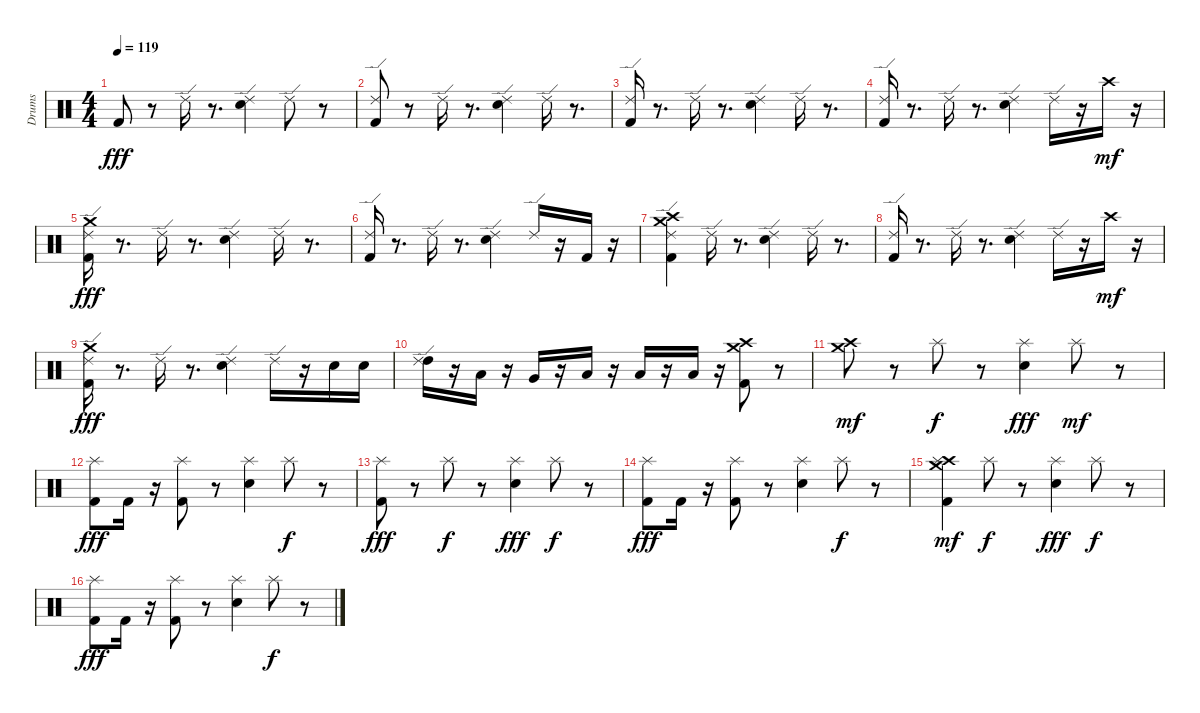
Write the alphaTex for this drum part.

\track ("Drums" "Drums") {instrument percussion}
\staff {score}
\articulation defaults
\ts (4 4)
\tempo 119
\clef neutral
\ks c "Kick (hit) 2".8{dy fff}
r.8 "Ride (edge) 2".16 r.8{d} ("Snare (hit) 2" "Ride (edge) 2").4 "Ride (edge) 2".8 r.8 |
("Kick (hit) 2" "Ride (edge) 2").8 r.8 "Ride (edge) 2".16 r.8{d} ("Snare (hit) 2" "Ride (edge) 2").4 "Ride (edge) 2".16 r.8{d} |
("Ride (edge) 2" "Kick (hit) 2").16 r.8{d} "Ride (edge) 2".16 r.8{d} ("Snare (hit) 2" "Ride (edge) 2").4 "Ride (edge) 2".16 r.8{d} |
("Ride (edge) 2" "Kick (hit) 2").16 r.8{d} "Ride (edge) 2".16 r.8{d} ("Ride (edge) 2" "Snare (hit) 2").4 "Ride (edge) 2".16 r.16 "Crash high (hit)".16{dy mf} r.16 |
("Ride (edge) 2" "Crash medium (hit)" "Kick (hit) 2").16{dy fff} r.8{d} "Ride (edge) 2".16 r.8{d} ("Snare (hit) 2" "Ride (edge) 2").4 "Ride (edge) 2".16 r.8{d} |
("Kick (hit) 2" "Ride (edge) 2").16 r.8{d} "Ride (edge) 2".16 r.8{d} ("Snare (hit) 2" "Ride (edge) 2").4 "Ride (edge) 2".16 r.16 "Kick (hit) 2".16 r.16 |
("Ride (edge) 2" "Crash medium (hit)" "Crash high (hit)" "Kick (hit) 2").4 "Ride (edge) 2".16 r.8{d} ("Snare (hit) 2" "Ride (edge) 2").4 "Ride (edge) 2".16 r.8{d} |
("Ride (edge) 2" "Kick (hit) 2").16 r.8{d} "Ride (edge) 2".16 r.8{d} ("Ride (edge) 2" "Snare (hit) 2").4 "Ride (edge) 2".16 r.16 "Crash high (hit)".16{dy mf} r.16 |
("Crash medium (hit)" "Ride (edge) 2" "Kick (hit) 2").16{dy fff} r.8{d} "Ride (edge) 2".16 r.8{d} ("Snare (hit) 2" "Ride (edge) 2").4 "Ride (edge) 2".16 r.16 "Snare (hit) 2".16 "Snare (hit) 2".16 |
("High Tom (hit)" "Ride (edge) 2").16 r.16 "Low Tom (hit)".16 r.16 "Very Low Tom (hit)".16 r.16 "Low Floor Tom (hit)".16 r.16 "Low Floor Tom (hit)".16 r.16 "Low Floor Tom (hit)".16 r.16 ("Kick (hit) 2" "Crash medium (hit)" "Crash high (hit)").8 r.8 |
("Crash medium (hit)" "Crash high (hit)").8{dy mf} r.8 "Splash (hit)".8{dy f} r.8 ("Snare (hit) 2" "Splash (hit)").4{dy fff} "Splash (hit)".8{dy mf} r.8 |
("Splash (hit)" "Kick (hit) 2").8{dy fff} "Kick (hit) 2".16 r.16 ("Splash (hit)" "Kick (hit) 2").8 r.8 ("Splash (hit)" "Snare (hit) 2").4 "Splash (hit)".8{dy f} r.8 |
("Kick (hit) 2" "Splash (hit)").8{dy fff} r.8 "Splash (hit)".8{dy f} r.8 ("Snare (hit) 2" "Splash (hit)").4{dy fff} "Splash (hit)".8{dy f} r.8 |
("Kick (hit) 2" "Splash (hit)").8{dy fff} "Kick (hit) 2".16 r.16 ("Splash (hit)" "Kick (hit) 2").8 r.8 ("Snare (hit) 2" "Splash (hit)").4 "Splash (hit)".8{dy f} r.8 |
("Crash high (hit)" "Kick (hit) 2" "Splash (hit)" "Crash medium (hit)").4{dy mf} "Splash (hit)".8{dy f} r.8 ("Snare (hit) 2" "Splash (hit)").4{dy fff} "Splash (hit)".8{dy f} r.8 |
("Splash (hit)" "Kick (hit) 2").8{dy fff} "Kick (hit) 2".16 r.16 ("Splash (hit)" "Kick (hit) 2").8 r.8 ("Snare (hit) 2" "Splash (hit)").4 "Splash (hit)".8{dy f} r.8
